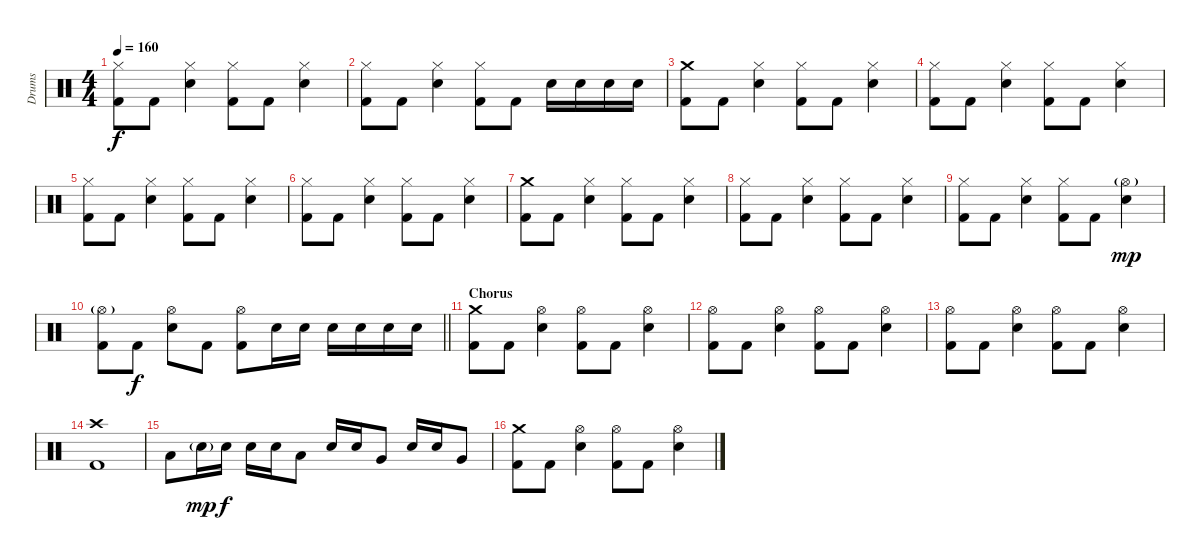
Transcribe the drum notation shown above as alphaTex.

\track ("Drums" "Drums") {instrument percussion}
\staff {score}
\articulation defaults
\ts (4 4)
\tempo 160
\clef neutral
\ks c
("Hi-Hat (closed)" "Kick (hit) 2").8{dy f} "Kick (hit) 2".8 ("Hi-Hat (closed)" "Electric Snare (hit)").4 ("Hi-Hat (closed)" "Kick (hit) 2").8 "Kick (hit) 2".8 ("Hi-Hat (closed)" "Electric Snare (hit)").4 |
("Hi-Hat (closed)" "Kick (hit) 2").8 "Kick (hit) 2".8 ("Hi-Hat (closed)" "Electric Snare (hit)").4 ("Hi-Hat (closed)" "Kick (hit) 2").8 "Kick (hit) 2".8 "Electric Snare (hit)".16 "Electric Snare (hit)".16 "Electric Snare (hit)".16 "Electric Snare (hit)".16 |
("Crash medium (hit)" "Kick (hit) 2").8 "Kick (hit) 2".8 ("Hi-Hat (closed)" "Electric Snare (hit)").4 ("Hi-Hat (closed)" "Kick (hit) 2").8 "Kick (hit) 2".8 ("Hi-Hat (closed)" "Electric Snare (hit)").4 |
("Hi-Hat (closed)" "Kick (hit) 2").8 "Kick (hit) 2".8 ("Hi-Hat (closed)" "Electric Snare (hit)").4 ("Hi-Hat (closed)" "Kick (hit) 2").8 "Kick (hit) 2".8 ("Hi-Hat (closed)" "Electric Snare (hit)").4 |
("Hi-Hat (closed)" "Kick (hit) 2").8 "Kick (hit) 2".8 ("Hi-Hat (closed)" "Electric Snare (hit)").4 ("Hi-Hat (closed)" "Kick (hit) 2").8 "Kick (hit) 2".8 ("Hi-Hat (closed)" "Electric Snare (hit)").4 |
("Hi-Hat (closed)" "Kick (hit) 2").8 "Kick (hit) 2".8 ("Hi-Hat (closed)" "Electric Snare (hit)").4 ("Hi-Hat (closed)" "Kick (hit) 2").8 "Kick (hit) 2".8 ("Hi-Hat (closed)" "Electric Snare (hit)").4 |
("Crash medium (hit)" "Kick (hit) 2").8 "Kick (hit) 2".8 ("Hi-Hat (closed)" "Electric Snare (hit)").4 ("Hi-Hat (closed)" "Kick (hit) 2").8 "Kick (hit) 2".8 ("Hi-Hat (closed)" "Electric Snare (hit)").4 |
("Hi-Hat (closed)" "Kick (hit) 2").8 "Kick (hit) 2".8 ("Hi-Hat (closed)" "Electric Snare (hit)").4 ("Hi-Hat (closed)" "Kick (hit) 2").8 "Kick (hit) 2".8 ("Hi-Hat (closed)" "Electric Snare (hit)").4 |
("Hi-Hat (closed)" "Kick (hit) 2").8 "Kick (hit) 2".8 ("Hi-Hat (closed)" "Electric Snare (hit)").4 ("Hi-Hat (closed)" "Kick (hit) 2").8 "Kick (hit) 2".8 ("Hi-Hat (open)"{g} "Electric Snare (hit)").4{dy mp} |
\barLineRight lightlight
("Hi-Hat (open)"{g} "Kick (hit) 2").8 "Kick (hit) 2".8{dy f} ("Hi-Hat (open)" "Electric Snare (hit)").8 "Kick (hit) 2".8 ("Hi-Hat (open)" "Kick (hit) 2").8 "Electric Snare (hit)".16 "Electric Snare (hit)".16 "Electric Snare (hit)".16 "Electric Snare (hit)".16 "Electric Snare (hit)".16 "Electric Snare (hit)".16 |
\section ("" "Chorus")
("Crash medium (hit)" "Kick (hit) 2").8 "Kick (hit) 2".8 ("Hi-Hat (open)" "Electric Snare (hit)").4 ("Hi-Hat (open)" "Kick (hit) 2").8 "Kick (hit) 2".8 ("Hi-Hat (open)" "Electric Snare (hit)").4 |
("Hi-Hat (open)" "Kick (hit) 2").8 "Kick (hit) 2".8 ("Hi-Hat (open)" "Electric Snare (hit)").4 ("Hi-Hat (open)" "Kick (hit) 2").8 "Kick (hit) 2".8 ("Hi-Hat (open)" "Electric Snare (hit)").4 |
("Hi-Hat (open)" "Kick (hit) 2").8 "Kick (hit) 2".8 ("Hi-Hat (open)" "Electric Snare (hit)").4 ("Hi-Hat (open)" "Kick (hit) 2").8 "Kick (hit) 2".8 ("Hi-Hat (open)" "Electric Snare (hit)").4 |
("Crash high (hit)" "Kick (hit) 2").1 |
"Low Tom (hit)".8 "Electric Snare (hit)"{g}.16{dy mp} "Electric Snare (hit)".16{dy f} "Electric Snare (hit)".16 "Electric Snare (hit)".16 "Low Tom (hit)".8 "Electric Snare (hit)".16 "Electric Snare (hit)".16 "Very Low Tom (hit)".8 "Electric Snare (hit)".16 "Electric Snare (hit)".16 "Very Low Tom (hit)".8 |
("Crash medium (hit)" "Kick (hit) 2").8 "Kick (hit) 2".8 ("Hi-Hat (open)" "Electric Snare (hit)").4 ("Hi-Hat (open)" "Kick (hit) 2").8 "Kick (hit) 2".8 ("Hi-Hat (open)" "Electric Snare (hit)").4
